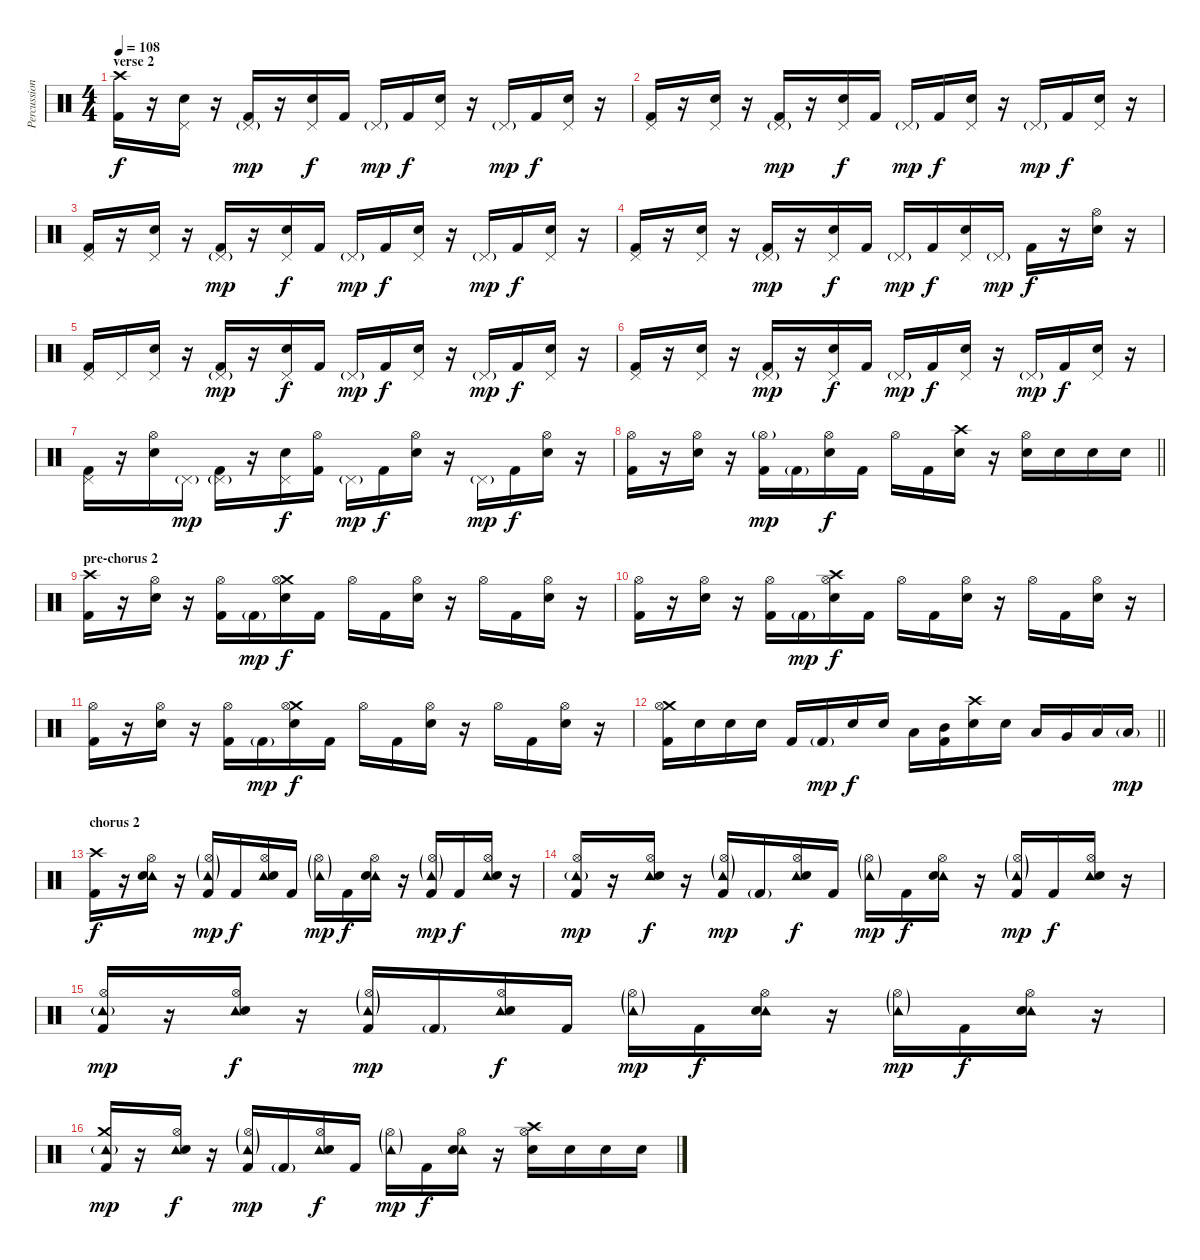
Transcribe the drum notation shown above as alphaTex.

\track ("Percussion" "Percussion") {instrument percussion}
\staff {score}
\articulation defaults
\ts (4 4)
\section ("" "verse 2")
\tempo 108
\clef neutral
\ks c
("Crash high (hit)" "Kick (hit) 2").16{dy f} r.16 ("Pedal Hi-Hat (hit)" "Electric Snare (hit)").16 r.16 ("Pedal Hi-Hat (hit)"{g} "Kick (hit) 2").16{dy mp} r.16 ("Pedal Hi-Hat (hit)" "Electric Snare (hit)").16{dy f} "Kick (hit) 2".16 "Pedal Hi-Hat (hit)"{g}.16{dy mp} "Kick (hit) 2".16{dy f} ("Pedal Hi-Hat (hit)" "Electric Snare (hit)").16 r.16 "Pedal Hi-Hat (hit)"{g}.16{dy mp} "Kick (hit) 2".16{dy f} ("Pedal Hi-Hat (hit)" "Electric Snare (hit)").16 r.16 |
("Pedal Hi-Hat (hit)" "Kick (hit) 2").16 r.16 ("Pedal Hi-Hat (hit)" "Electric Snare (hit)").16 r.16 ("Pedal Hi-Hat (hit)"{g} "Kick (hit) 2").16{dy mp} r.16 ("Pedal Hi-Hat (hit)" "Electric Snare (hit)").16{dy f} "Kick (hit) 2".16 "Pedal Hi-Hat (hit)"{g}.16{dy mp} "Kick (hit) 2".16{dy f} ("Pedal Hi-Hat (hit)" "Electric Snare (hit)").16 r.16 "Pedal Hi-Hat (hit)"{g}.16{dy mp} "Kick (hit) 2".16{dy f} ("Pedal Hi-Hat (hit)" "Electric Snare (hit)").16 r.16 |
("Pedal Hi-Hat (hit)" "Kick (hit) 2").16 r.16 ("Pedal Hi-Hat (hit)" "Electric Snare (hit)").16 r.16 ("Pedal Hi-Hat (hit)"{g} "Kick (hit) 2").16{dy mp} r.16 ("Pedal Hi-Hat (hit)" "Electric Snare (hit)").16{dy f} "Kick (hit) 2".16 "Pedal Hi-Hat (hit)"{g}.16{dy mp} "Kick (hit) 2".16{dy f} ("Pedal Hi-Hat (hit)" "Electric Snare (hit)").16 r.16 "Pedal Hi-Hat (hit)"{g}.16{dy mp} "Kick (hit) 2".16{dy f} ("Pedal Hi-Hat (hit)" "Electric Snare (hit)").16 r.16 |
("Pedal Hi-Hat (hit)" "Kick (hit) 2").16 r.16 ("Pedal Hi-Hat (hit)" "Electric Snare (hit)").16 r.16 ("Pedal Hi-Hat (hit)"{g} "Kick (hit) 2").16{dy mp} r.16 ("Pedal Hi-Hat (hit)" "Electric Snare (hit)").16{dy f} "Kick (hit) 2".16 "Pedal Hi-Hat (hit)"{g}.16{dy mp} "Kick (hit) 2".16{dy f} ("Pedal Hi-Hat (hit)" "Electric Snare (hit)").16 "Pedal Hi-Hat (hit)"{g}.16{dy mp} "Kick (hit) 2".16{dy f} r.16 ("Hi-Hat (open)" "Electric Snare (hit)").16 r.16 |
("Pedal Hi-Hat (hit)" "Kick (hit) 2").16 "Pedal Hi-Hat (hit)".16 ("Pedal Hi-Hat (hit)" "Electric Snare (hit)").16 r.16 ("Pedal Hi-Hat (hit)"{g} "Kick (hit) 2").16{dy mp} r.16 ("Pedal Hi-Hat (hit)" "Electric Snare (hit)").16{dy f} "Kick (hit) 2".16 "Pedal Hi-Hat (hit)"{g}.16{dy mp} "Kick (hit) 2".16{dy f} ("Pedal Hi-Hat (hit)" "Electric Snare (hit)").16 r.16 "Pedal Hi-Hat (hit)"{g}.16{dy mp} "Kick (hit) 2".16{dy f} ("Pedal Hi-Hat (hit)" "Electric Snare (hit)").16 r.16 |
("Pedal Hi-Hat (hit)" "Kick (hit) 2").16 r.16 ("Pedal Hi-Hat (hit)" "Electric Snare (hit)").16 r.16 ("Pedal Hi-Hat (hit)"{g} "Kick (hit) 2").16{dy mp} r.16 ("Pedal Hi-Hat (hit)" "Electric Snare (hit)").16{dy f} "Kick (hit) 2".16 "Pedal Hi-Hat (hit)"{g}.16{dy mp} "Kick (hit) 2".16{dy f} ("Pedal Hi-Hat (hit)" "Electric Snare (hit)").16 r.16 "Pedal Hi-Hat (hit)"{g}.16{dy mp} "Kick (hit) 2".16{dy f} ("Pedal Hi-Hat (hit)" "Electric Snare (hit)").16 r.16 |
("Pedal Hi-Hat (hit)" "Kick (hit) 2").16 r.16 ("Hi-Hat (open)" "Electric Snare (hit)").16 "Pedal Hi-Hat (hit)"{g}.16{dy mp} ("Pedal Hi-Hat (hit)"{g} "Kick (hit) 2").16 r.16 ("Pedal Hi-Hat (hit)" "Electric Snare (hit)").16{dy f} ("Hi-Hat (open)" "Kick (hit) 2").16 "Pedal Hi-Hat (hit)"{g}.16{dy mp} "Kick (hit) 2".16{dy f} ("Hi-Hat (open)" "Electric Snare (hit)").16 r.16 "Pedal Hi-Hat (hit)"{g}.16{dy mp} "Kick (hit) 2".16{dy f} ("Hi-Hat (open)" "Electric Snare (hit)").16 r.16 |
\barLineRight lightlight
("Hi-Hat (open)" "Kick (hit) 2").16 r.16 ("Hi-Hat (open)" "Electric Snare (hit)").16 r.16 ("Hi-Hat (open)"{g} "Kick (hit) 2").16{dy mp} "Kick (hit) 2"{g}.16 ("Hi-Hat (open)" "Electric Snare (hit)").16{dy f} "Kick (hit) 2".16 "Hi-Hat (open)".16 "Kick (hit) 2".16 ("Crash high (hit)" "Electric Snare (hit)").16 r.16 ("Hi-Hat (open)" "Electric Snare (hit)").16 "Electric Snare (hit)".16 "Electric Snare (hit)".16 "Electric Snare (hit)".16 |
\section ("" "pre-chorus 2")
("Crash high (hit)" "Kick (hit) 2").16 r.16 ("Hi-Hat (open)" "Electric Snare (hit)").16 r.16 ("Hi-Hat (open)" "Kick (hit) 2").16 "Kick (hit) 2"{g}.16{dy mp} ("Crash medium (hit)" "Hi-Hat (open)" "Electric Snare (hit)").16{dy f} "Kick (hit) 2".16 "Hi-Hat (open)".16 "Kick (hit) 2".16 ("Hi-Hat (open)" "Electric Snare (hit)").16 r.16 "Hi-Hat (open)".16 "Kick (hit) 2".16 ("Hi-Hat (open)" "Electric Snare (hit)").16 r.16 |
("Hi-Hat (open)" "Kick (hit) 2").16 r.16 ("Hi-Hat (open)" "Electric Snare (hit)").16 r.16 ("Hi-Hat (open)" "Kick (hit) 2").16 "Kick (hit) 2"{g}.16{dy mp} ("Crash high (hit)" "Hi-Hat (open)" "Electric Snare (hit)").16{dy f} "Kick (hit) 2".16 "Hi-Hat (open)".16 "Kick (hit) 2".16 ("Hi-Hat (open)" "Electric Snare (hit)").16 r.16 "Hi-Hat (open)".16 "Kick (hit) 2".16 ("Hi-Hat (open)" "Electric Snare (hit)").16 r.16 |
("Hi-Hat (open)" "Kick (hit) 2").16 r.16 ("Hi-Hat (open)" "Electric Snare (hit)").16 r.16 ("Hi-Hat (open)" "Kick (hit) 2").16 "Kick (hit) 2"{g}.16{dy mp} ("Crash medium (hit)" "Hi-Hat (open)" "Electric Snare (hit)").16{dy f} "Kick (hit) 2".16 "Hi-Hat (open)".16 "Kick (hit) 2".16 ("Hi-Hat (open)" "Electric Snare (hit)").16 r.16 "Hi-Hat (open)".16 "Kick (hit) 2".16 ("Hi-Hat (open)" "Electric Snare (hit)").16 r.16 |
\barLineRight lightlight
("Crash medium (hit)" "Hi-Hat (open)" "Kick (hit) 2").16 "Electric Snare (hit)".16 "Electric Snare (hit)".16 "Electric Snare (hit)".16 "Kick (hit) 2".16 "Kick (hit) 2"{g}.16{dy mp} "Electric Snare (hit)".16{dy f} "Electric Snare (hit)".16 "Low Tom (hit)".16 ("Mid Tom (hit)" "Kick (hit) 2").16 ("Crash high (hit)" "Electric Snare (hit)").16 "Electric Snare (hit)".16 "Low Tom (hit)".16 "Very Low Tom (hit)".16 "Low Floor Tom (hit)".16 "Low Floor Tom (hit)"{g}.16{dy mp} |
\section ("" "chorus 2")
("Crash high (hit)" "Kick (hit) 2").16{dy f} r.16 ("Tambourine (hit)" "Hi-Hat (open)" "Electric Snare (hit)").16 r.16 ("Tambourine (hit)"{g} "Hi-Hat (open)"{g} "Kick (hit) 2").16{dy mp} "Kick (hit) 2".16{dy f} ("Tambourine (hit)" "Hi-Hat (open)" "Electric Snare (hit)").16 "Kick (hit) 2".16 ("Tambourine (hit)"{g} "Hi-Hat (open)"{g}).16{dy mp} "Kick (hit) 2".16{dy f} ("Tambourine (hit)" "Hi-Hat (open)" "Electric Snare (hit)").16 r.16 ("Tambourine (hit)"{g} "Hi-Hat (open)"{g} "Kick (hit) 2").16{dy mp} "Kick (hit) 2".16{dy f} ("Tambourine (hit)" "Hi-Hat (open)" "Electric Snare (hit)").16 r.16 |
("Tambourine (hit)"{g} "Hi-Hat (open)" "Kick (hit) 2").16{dy mp} r.16 ("Tambourine (hit)" "Hi-Hat (open)" "Electric Snare (hit)").16{dy f} r.16 ("Tambourine (hit)"{g} "Hi-Hat (open)"{g} "Kick (hit) 2").16{dy mp} "Kick (hit) 2"{g}.16 ("Tambourine (hit)" "Hi-Hat (open)" "Electric Snare (hit)").16{dy f} "Kick (hit) 2".16 ("Tambourine (hit)"{g} "Hi-Hat (open)"{g}).16{dy mp} "Kick (hit) 2".16{dy f} ("Tambourine (hit)" "Hi-Hat (open)" "Electric Snare (hit)").16 r.16 ("Tambourine (hit)"{g} "Hi-Hat (open)"{g} "Kick (hit) 2").16{dy mp} "Kick (hit) 2".16{dy f} ("Tambourine (hit)" "Hi-Hat (open)" "Electric Snare (hit)").16 r.16 |
("Tambourine (hit)"{g} "Hi-Hat (open)" "Kick (hit) 2").16{dy mp} r.16 ("Tambourine (hit)" "Hi-Hat (open)" "Electric Snare (hit)").16{dy f} r.16 ("Tambourine (hit)"{g} "Hi-Hat (open)"{g} "Kick (hit) 2").16{dy mp} "Kick (hit) 2"{g}.16 ("Tambourine (hit)" "Hi-Hat (open)" "Electric Snare (hit)").16{dy f} "Kick (hit) 2".16 ("Tambourine (hit)"{g} "Hi-Hat (open)"{g}).16{dy mp} "Kick (hit) 2".16{dy f} ("Tambourine (hit)" "Hi-Hat (open)" "Electric Snare (hit)").16 r.16 ("Tambourine (hit)"{g} "Hi-Hat (open)"{g}).16{dy mp} "Kick (hit) 2".16{dy f} ("Tambourine (hit)" "Hi-Hat (open)" "Electric Snare (hit)").16 r.16 |
("Crash medium (hit)" "Tambourine (hit)"{g} "Kick (hit) 2").16{dy mp} r.16 ("Tambourine (hit)" "Hi-Hat (open)" "Electric Snare (hit)").16{dy f} r.16 ("Tambourine (hit)"{g} "Hi-Hat (open)"{g} "Kick (hit) 2").16{dy mp} "Kick (hit) 2"{g}.16 ("Tambourine (hit)" "Hi-Hat (open)" "Electric Snare (hit)").16{dy f} "Kick (hit) 2".16 ("Tambourine (hit)"{g} "Hi-Hat (open)"{g}).16{dy mp} "Kick (hit) 2".16{dy f} ("Tambourine (hit)" "Hi-Hat (open)" "Electric Snare (hit)").16 r.16 ("Crash high (hit)" "Hi-Hat (open)" "Electric Snare (hit)").16 "Electric Snare (hit)".16 "Electric Snare (hit)".16 "Electric Snare (hit)".16
